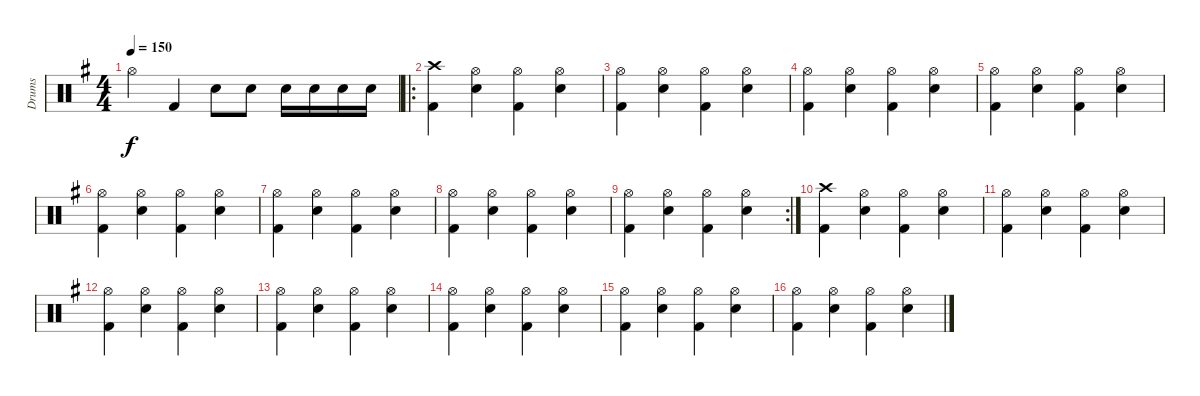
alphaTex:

\track ("Drums" "Drums") {instrument percussion}
\staff {score}
\articulation defaults
\ts (4 4)
\tempo 150
\clef neutral
\ks g "Hi-Hat (open)".4{dy f} "Kick (hit) 2".4 "Electric Snare (hit)".8 "Electric Snare (hit)".8 "Electric Snare (hit)".16 "Electric Snare (hit)".16 "Electric Snare (hit)".16 "Electric Snare (hit)".16
|
\ro
("Crash high (hit)" "Kick (hit) 2").4 ("Hi-Hat (open)" "Electric Snare (hit)").4 ("Hi-Hat (open)" "Kick (hit) 2").4 ("Hi-Hat (open)" "Electric Snare (hit)").4 |
("Hi-Hat (open)" "Kick (hit) 2").4 ("Hi-Hat (open)" "Electric Snare (hit)").4 ("Hi-Hat (open)" "Kick (hit) 2").4 ("Hi-Hat (open)" "Electric Snare (hit)").4 |
("Hi-Hat (open)" "Kick (hit) 2").4 ("Hi-Hat (open)" "Electric Snare (hit)").4 ("Hi-Hat (open)" "Kick (hit) 2").4 ("Hi-Hat (open)" "Electric Snare (hit)").4 |
("Hi-Hat (open)" "Kick (hit) 2").4 ("Hi-Hat (open)" "Electric Snare (hit)").4 ("Hi-Hat (open)" "Kick (hit) 2").4 ("Hi-Hat (open)" "Electric Snare (hit)").4 |
("Hi-Hat (open)" "Kick (hit) 2").4 ("Hi-Hat (open)" "Electric Snare (hit)").4 ("Hi-Hat (open)" "Kick (hit) 2").4 ("Hi-Hat (open)" "Electric Snare (hit)").4 |
("Hi-Hat (open)" "Kick (hit) 2").4 ("Hi-Hat (open)" "Electric Snare (hit)").4 ("Hi-Hat (open)" "Kick (hit) 2").4 ("Hi-Hat (open)" "Electric Snare (hit)").4 |
("Hi-Hat (open)" "Kick (hit) 2").4 ("Hi-Hat (open)" "Electric Snare (hit)").4 ("Hi-Hat (open)" "Kick (hit) 2").4 ("Hi-Hat (open)" "Electric Snare (hit)").4 |
\rc 2
("Hi-Hat (open)" "Kick (hit) 2").4 ("Hi-Hat (open)" "Electric Snare (hit)").4 ("Hi-Hat (open)" "Kick (hit) 2").4 ("Hi-Hat (open)" "Electric Snare (hit)").4 |
("Crash high (hit)" "Kick (hit) 2").4 ("Hi-Hat (open)" "Electric Snare (hit)").4 ("Hi-Hat (open)" "Kick (hit) 2").4 ("Hi-Hat (open)" "Electric Snare (hit)").4 |
("Hi-Hat (open)" "Kick (hit) 2").4 ("Hi-Hat (open)" "Electric Snare (hit)").4 ("Hi-Hat (open)" "Kick (hit) 2").4 ("Hi-Hat (open)" "Electric Snare (hit)").4 |
("Hi-Hat (open)" "Kick (hit) 2").4 ("Hi-Hat (open)" "Electric Snare (hit)").4 ("Hi-Hat (open)" "Kick (hit) 2").4 ("Hi-Hat (open)" "Electric Snare (hit)").4 |
("Hi-Hat (open)" "Kick (hit) 2").4 ("Hi-Hat (open)" "Electric Snare (hit)").4 ("Hi-Hat (open)" "Kick (hit) 2").4 ("Hi-Hat (open)" "Electric Snare (hit)").4 |
("Hi-Hat (open)" "Kick (hit) 2").4 ("Hi-Hat (open)" "Electric Snare (hit)").4 ("Hi-Hat (open)" "Kick (hit) 2").4 ("Hi-Hat (open)" "Electric Snare (hit)").4 |
("Hi-Hat (open)" "Kick (hit) 2").4 ("Hi-Hat (open)" "Electric Snare (hit)").4 ("Hi-Hat (open)" "Kick (hit) 2").4 ("Hi-Hat (open)" "Electric Snare (hit)").4 |
("Hi-Hat (open)" "Kick (hit) 2").4 ("Hi-Hat (open)" "Electric Snare (hit)").4 ("Hi-Hat (open)" "Kick (hit) 2").4 ("Hi-Hat (open)" "Electric Snare (hit)").4
